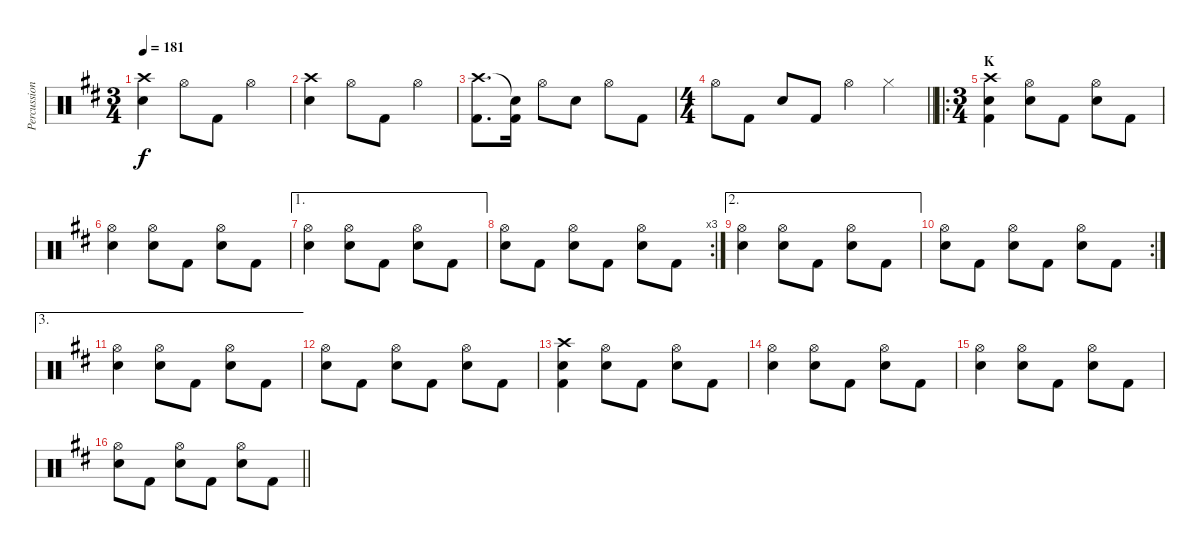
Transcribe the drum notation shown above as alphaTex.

\track ("Percussion" "Percussion") {instrument percussion}
\staff {score}
\articulation defaults
\ts (3 4)
\tempo 181
\clef neutral
\ks d
("Crash high (hit)" "Snare (hit) 2").4{dy f} "Hi-Hat (open)".8 "Kick (hit) 2".8 "Hi-Hat (open)".4 |
("Crash high (hit)" "Snare (hit) 2").4 "Hi-Hat (open)".8 "Kick (hit) 2".8 "Hi-Hat (open)".4 |
("Crash high (hit)" "Kick (hit) 2").8{d} ("Snare (hit)"{t} "Kick (hit) 2").16 "Hi-Hat (open)".8 "Snare (hit) 2".8 "Hi-Hat (open)".8 "Kick (hit) 2".8 |
\ts (4 4)
\barLineRight lightlight "Hi-Hat (open)".8 "Kick (hit) 2".8 "Snare (hit) 2".8 "Kick (hit) 2".8 "Hi-Hat (open)".4 "Hi-Hat (closed)".4
|
\ro
\ts (3 4)
\section ("" "K")
("Crash high (hit)" "Snare (hit) 2" "Kick (hit) 2").4 ("Hi-Hat (open)" "Snare (hit) 2").8 "Kick (hit) 2".8 ("Hi-Hat (open)" "Snare (hit) 2").8 "Kick (hit) 2".8 |
("Hi-Hat (open)" "Snare (hit) 2").4 ("Hi-Hat (open)" "Snare (hit) 2").8 "Kick (hit) 2".8 ("Hi-Hat (open)" "Snare (hit) 2").8 "Kick (hit) 2".8 |
\ae 1
("Hi-Hat (open)" "Snare (hit) 2").4 ("Hi-Hat (open)" "Snare (hit) 2").8 "Kick (hit) 2".8 ("Hi-Hat (open)" "Snare (hit) 2").8 "Kick (hit) 2".8 |
\rc 3
("Hi-Hat (open)" "Snare (hit) 2").8 "Kick (hit) 2".8 ("Hi-Hat (open)" "Snare (hit) 2").8 "Kick (hit) 2".8 ("Hi-Hat (open)" "Snare (hit) 2").8 "Kick (hit) 2".8 |
\ae 2
("Hi-Hat (open)" "Snare (hit) 2").4 ("Hi-Hat (open)" "Snare (hit) 2").8 "Kick (hit) 2".8 ("Hi-Hat (open)" "Snare (hit) 2").8 "Kick (hit) 2".8 |
\rc 2
("Hi-Hat (open)" "Snare (hit) 2").8 "Kick (hit) 2".8 ("Hi-Hat (open)" "Snare (hit) 2").8 "Kick (hit) 2".8 ("Hi-Hat (open)" "Snare (hit) 2").8 "Kick (hit) 2".8 |
\ae 3
("Hi-Hat (open)" "Snare (hit) 2").4 ("Hi-Hat (open)" "Snare (hit) 2").8 "Kick (hit) 2".8 ("Hi-Hat (open)" "Snare (hit) 2").8 "Kick (hit) 2".8 |
("Hi-Hat (open)" "Snare (hit) 2").8 "Kick (hit) 2".8 ("Hi-Hat (open)" "Snare (hit) 2").8 "Kick (hit) 2".8 ("Hi-Hat (open)" "Snare (hit) 2").8 "Kick (hit) 2".8 |
("Crash high (hit)" "Snare (hit) 2" "Kick (hit) 2").4 ("Hi-Hat (open)" "Snare (hit) 2").8 "Kick (hit) 2".8 ("Hi-Hat (open)" "Snare (hit) 2").8 "Kick (hit) 2".8 |
("Hi-Hat (open)" "Snare (hit) 2").4 ("Hi-Hat (open)" "Snare (hit) 2").8 "Kick (hit) 2".8 ("Hi-Hat (open)" "Snare (hit) 2").8 "Kick (hit) 2".8 |
("Hi-Hat (open)" "Snare (hit) 2").4 ("Hi-Hat (open)" "Snare (hit) 2").8 "Kick (hit) 2".8 ("Hi-Hat (open)" "Snare (hit) 2").8 "Kick (hit) 2".8 |
\barLineRight lightlight
("Hi-Hat (open)" "Snare (hit) 2").8 "Kick (hit) 2".8 ("Hi-Hat (open)" "Snare (hit) 2").8 "Kick (hit) 2".8 ("Hi-Hat (open)" "Snare (hit) 2").8 "Kick (hit) 2".8
